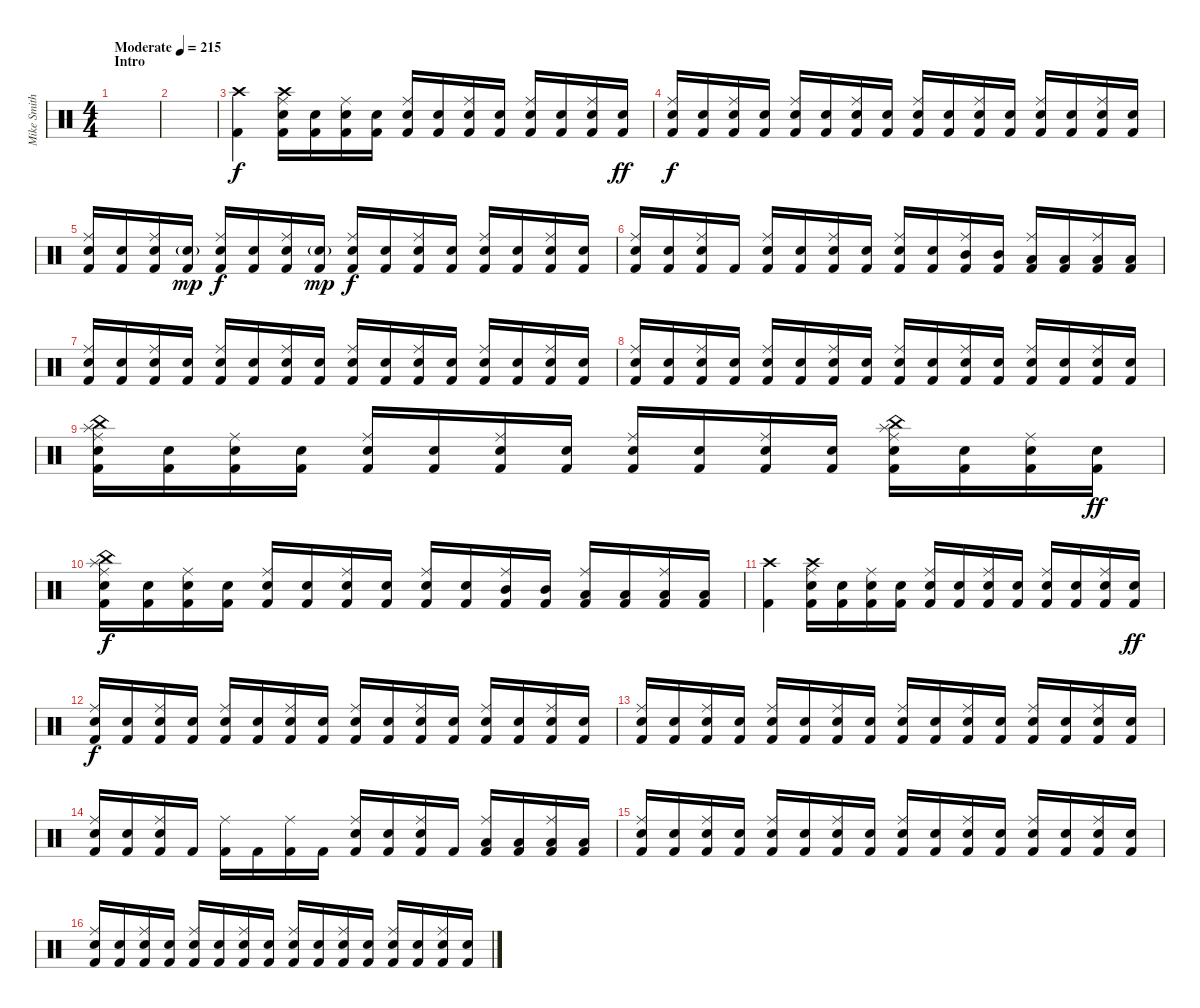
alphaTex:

\track ("Mike Smith (Suffocation)" "Mike Smith") {instrument percussion}
\staff {score}
\articulation defaults
\ts (4 4)
\section ("" "Intro")
\tempo (215 "Moderate")
\clef neutral
\ks c
|
|
("Crash high (hit)" "Kick (hit) 2").4 ("Crash high (hit)" "Ride (middle)" "Snare (hit) 2" "Kick (hit) 2").16 ("Snare (hit) 2" "Kick (hit) 2").16 ("Ride (middle)" "Snare (hit) 2" "Kick (hit) 2").16 ("Snare (hit) 2" "Kick (hit) 2").16 ("Ride (middle)" "Snare (hit) 2" "Kick (hit) 2").16 ("Snare (hit) 2" "Kick (hit) 2").16 ("Ride (middle)" "Snare (hit) 2" "Kick (hit) 2").16 ("Snare (hit) 2" "Kick (hit) 2").16 ("Ride (middle)" "Snare (hit) 2" "Kick (hit) 2").16 ("Snare (hit) 2" "Kick (hit) 2").16 ("Ride (middle)" "Snare (hit) 2" "Kick (hit) 2").16 ("Snare (hit) 2" "Kick (hit) 2").16{dy ff} |
("Ride (middle)" "Snare (hit) 2" "Kick (hit) 2").16{dy f} ("Snare (hit) 2" "Kick (hit) 2").16 ("Ride (middle)" "Snare (hit) 2" "Kick (hit) 2").16 ("Snare (hit) 2" "Kick (hit) 2").16 ("Ride (middle)" "Snare (hit) 2" "Kick (hit) 2").16 ("Snare (hit) 2" "Kick (hit) 2").16 ("Ride (middle)" "Snare (hit) 2" "Kick (hit) 2").16 ("Snare (hit) 2" "Kick (hit) 2").16 ("Ride (middle)" "Snare (hit) 2" "Kick (hit) 2").16 ("Snare (hit) 2" "Kick (hit) 2").16 ("Ride (middle)" "Snare (hit) 2" "Kick (hit) 2").16 ("Snare (hit) 2" "Kick (hit) 2").16 ("Ride (middle)" "Snare (hit) 2" "Kick (hit) 2").16 ("Snare (hit) 2" "Kick (hit) 2").16 ("Ride (middle)" "Snare (hit) 2" "Kick (hit) 2").16 ("Snare (hit) 2" "Kick (hit) 2").16 |
("Ride (middle)" "Snare (hit) 2" "Kick (hit) 2").16 ("Snare (hit) 2" "Kick (hit) 2").16 ("Ride (middle)" "Snare (hit) 2" "Kick (hit) 2").16 ("Snare (hit) 2"{g} "Kick (hit) 2").16{dy mp} ("Ride (middle)" "Snare (hit) 2" "Kick (hit) 2").16{dy f} ("Snare (hit) 2" "Kick (hit) 2").16 ("Ride (middle)" "Snare (hit) 2" "Kick (hit) 2").16 ("Snare (hit) 2"{g} "Kick (hit) 2").16{dy mp} ("Ride (middle)" "Snare (hit) 2" "Kick (hit) 2").16{dy f} ("Snare (hit) 2" "Kick (hit) 2").16 ("Ride (middle)" "Snare (hit) 2" "Kick (hit) 2").16 ("Snare (hit) 2" "Kick (hit) 2").16 ("Ride (middle)" "Snare (hit) 2" "Kick (hit) 2").16 ("Snare (hit) 2" "Kick (hit) 2").16 ("Ride (middle)" "Snare (hit) 2" "Kick (hit) 2").16 ("Snare (hit) 2" "Kick (hit) 2").16 |
("Ride (middle)" "Snare (hit) 2" "Kick (hit) 2").16 ("Snare (hit) 2" "Kick (hit) 2").16 ("Ride (middle)" "Snare (hit) 2" "Kick (hit) 2").16 "Kick (hit) 2".16 ("Ride (middle)" "Snare (hit) 2" "Kick (hit) 2").16 ("Snare (hit) 2" "Kick (hit) 2").16 ("Ride (middle)" "Snare (hit) 2" "Kick (hit) 2").16 ("Snare (hit) 2" "Kick (hit) 2").16 ("Ride (middle)" "Snare (hit) 2" "Kick (hit) 2").16 ("Snare (hit) 2" "Kick (hit) 2").16 ("Ride (middle)" "Mid Tom (hit)" "Kick (hit) 2").16 ("Mid Tom (hit)" "Kick (hit) 2").16 ("Ride (middle)" "Low Tom (hit)" "Kick (hit) 2").16 ("Low Tom (hit)" "Kick (hit) 2").16 ("Ride (middle)" "Low Tom (hit)" "Kick (hit) 2").16 ("Low Tom (hit)" "Kick (hit) 2").16 |
("Ride (middle)" "Snare (hit) 2" "Kick (hit) 2").16 ("Snare (hit) 2" "Kick (hit) 2").16 ("Ride (middle)" "Snare (hit) 2" "Kick (hit) 2").16 ("Snare (hit) 2" "Kick (hit) 2").16 ("Ride (middle)" "Snare (hit) 2" "Kick (hit) 2").16 ("Snare (hit) 2" "Kick (hit) 2").16 ("Ride (middle)" "Snare (hit) 2" "Kick (hit) 2").16 ("Snare (hit) 2" "Kick (hit) 2").16 ("Ride (middle)" "Snare (hit) 2" "Kick (hit) 2").16 ("Snare (hit) 2" "Kick (hit) 2").16 ("Ride (middle)" "Snare (hit) 2" "Kick (hit) 2").16 ("Snare (hit) 2" "Kick (hit) 2").16 ("Ride (middle)" "Snare (hit) 2" "Kick (hit) 2").16 ("Snare (hit) 2" "Kick (hit) 2").16 ("Ride (middle)" "Snare (hit) 2" "Kick (hit) 2").16 ("Snare (hit) 2" "Kick (hit) 2").16 |
("Ride (middle)" "Snare (hit) 2" "Kick (hit) 2").16 ("Snare (hit) 2" "Kick (hit) 2").16 ("Ride (middle)" "Snare (hit) 2" "Kick (hit) 2").16 ("Snare (hit) 2" "Kick (hit) 2").16 ("Ride (middle)" "Snare (hit) 2" "Kick (hit) 2").16 ("Snare (hit) 2" "Kick (hit) 2").16 ("Ride (middle)" "Snare (hit) 2" "Kick (hit) 2").16 ("Snare (hit) 2" "Kick (hit) 2").16 ("Ride (middle)" "Snare (hit) 2" "Kick (hit) 2").16 ("Snare (hit) 2" "Kick (hit) 2").16 ("Ride (middle)" "Snare (hit) 2" "Kick (hit) 2").16 ("Snare (hit) 2" "Kick (hit) 2").16 ("Ride (middle)" "Snare (hit) 2" "Kick (hit) 2").16 ("Snare (hit) 2" "Kick (hit) 2").16 ("Ride (middle)" "Snare (hit) 2" "Kick (hit) 2").16 ("Snare (hit) 2" "Kick (hit) 2").16 |
("Ride (middle)" "China (hit)" "Snare (hit) 2" "Splash (hit)" "Kick (hit) 2").16 ("Snare (hit) 2" "Kick (hit) 2").16 ("Ride (middle)" "Snare (hit) 2" "Kick (hit) 2").16 ("Snare (hit) 2" "Kick (hit) 2").16 ("Ride (middle)" "Snare (hit) 2" "Kick (hit) 2").16 ("Snare (hit) 2" "Kick (hit) 2").16 ("Ride (middle)" "Snare (hit) 2" "Kick (hit) 2").16 ("Snare (hit) 2" "Kick (hit) 2").16 ("Ride (middle)" "Snare (hit) 2" "Kick (hit) 2").16 ("Snare (hit) 2" "Kick (hit) 2").16 ("Ride (middle)" "Snare (hit) 2" "Kick (hit) 2").16 ("Snare (hit) 2" "Kick (hit) 2").16 ("Ride (middle)" "China (hit)" "Snare (hit) 2" "Splash (hit)" "Kick (hit) 2").16 ("Snare (hit) 2" "Kick (hit) 2").16 ("Ride (middle)" "Snare (hit) 2" "Kick (hit) 2").16 ("Snare (hit) 2" "Kick (hit) 2").16{dy ff} |
("Ride (middle)" "China (hit)" "Snare (hit) 2" "Splash (hit)" "Kick (hit) 2").16{dy f} ("Snare (hit) 2" "Kick (hit) 2").16 ("Ride (middle)" "Snare (hit) 2" "Kick (hit) 2").16 ("Snare (hit) 2" "Kick (hit) 2").16 ("Ride (middle)" "Snare (hit) 2" "Kick (hit) 2").16 ("Snare (hit) 2" "Kick (hit) 2").16 ("Ride (middle)" "Snare (hit) 2" "Kick (hit) 2").16 ("Snare (hit) 2" "Kick (hit) 2").16 ("Ride (middle)" "Snare (hit) 2" "Kick (hit) 2").16 ("Snare (hit) 2" "Kick (hit) 2").16 ("Ride (middle)" "Mid Tom (hit)" "Kick (hit) 2").16 ("Mid Tom (hit)" "Kick (hit) 2").16 ("Ride (middle)" "Low Tom (hit)" "Kick (hit) 2").16 ("Low Tom (hit)" "Kick (hit) 2").16 ("Ride (middle)" "Low Tom (hit)" "Kick (hit) 2").16 ("Low Tom (hit)" "Kick (hit) 2").16 |
("Crash high (hit)" "Kick (hit) 2").4 ("Crash high (hit)" "Ride (middle)" "Snare (hit) 2" "Kick (hit) 2").16 ("Snare (hit) 2" "Kick (hit) 2").16 ("Ride (middle)" "Snare (hit) 2" "Kick (hit) 2").16 ("Snare (hit) 2" "Kick (hit) 2").16 ("Ride (middle)" "Snare (hit) 2" "Kick (hit) 2").16 ("Snare (hit) 2" "Kick (hit) 2").16 ("Ride (middle)" "Snare (hit) 2" "Kick (hit) 2").16 ("Snare (hit) 2" "Kick (hit) 2").16 ("Ride (middle)" "Snare (hit) 2" "Kick (hit) 2").16 ("Snare (hit) 2" "Kick (hit) 2").16 ("Ride (middle)" "Snare (hit) 2" "Kick (hit) 2").16 ("Snare (hit) 2" "Kick (hit) 2").16{dy ff} |
("Ride (middle)" "Snare (hit) 2" "Kick (hit) 2").16{dy f} ("Snare (hit) 2" "Kick (hit) 2").16 ("Ride (middle)" "Snare (hit) 2" "Kick (hit) 2").16 ("Snare (hit) 2" "Kick (hit) 2").16 ("Ride (middle)" "Snare (hit) 2" "Kick (hit) 2").16 ("Snare (hit) 2" "Kick (hit) 2").16 ("Ride (middle)" "Snare (hit) 2" "Kick (hit) 2").16 ("Snare (hit) 2" "Kick (hit) 2").16 ("Ride (middle)" "Snare (hit) 2" "Kick (hit) 2").16 ("Snare (hit) 2" "Kick (hit) 2").16 ("Ride (middle)" "Snare (hit) 2" "Kick (hit) 2").16 ("Snare (hit) 2" "Kick (hit) 2").16 ("Ride (middle)" "Snare (hit) 2" "Kick (hit) 2").16 ("Snare (hit) 2" "Kick (hit) 2").16 ("Ride (middle)" "Snare (hit) 2" "Kick (hit) 2").16 ("Snare (hit) 2" "Kick (hit) 2").16 |
("Ride (middle)" "Snare (hit) 2" "Kick (hit) 2").16 ("Snare (hit) 2" "Kick (hit) 2").16 ("Ride (middle)" "Snare (hit) 2" "Kick (hit) 2").16 ("Snare (hit) 2" "Kick (hit) 2").16 ("Ride (middle)" "Snare (hit) 2" "Kick (hit) 2").16 ("Snare (hit) 2" "Kick (hit) 2").16 ("Ride (middle)" "Snare (hit) 2" "Kick (hit) 2").16 ("Snare (hit) 2" "Kick (hit) 2").16 ("Ride (middle)" "Snare (hit) 2" "Kick (hit) 2").16 ("Snare (hit) 2" "Kick (hit) 2").16 ("Ride (middle)" "Snare (hit) 2" "Kick (hit) 2").16 ("Snare (hit) 2" "Kick (hit) 2").16 ("Ride (middle)" "Snare (hit) 2" "Kick (hit) 2").16 ("Snare (hit) 2" "Kick (hit) 2").16 ("Ride (middle)" "Snare (hit) 2" "Kick (hit) 2").16 ("Snare (hit) 2" "Kick (hit) 2").16 |
("Ride (middle)" "Snare (hit) 2" "Kick (hit) 2").16 ("Snare (hit) 2" "Kick (hit) 2").16 ("Ride (middle)" "Snare (hit) 2" "Kick (hit) 2").16 "Kick (hit) 2".16 ("Ride (middle)" "Kick (hit) 2").16 "Kick (hit) 2".16 ("Ride (middle)" "Kick (hit) 2").16 "Kick (hit) 2".16 ("Ride (middle)" "Snare (hit) 2" "Kick (hit) 2").16 ("Snare (hit) 2" "Kick (hit) 2").16 ("Ride (middle)" "Snare (hit) 2" "Kick (hit) 2").16 "Kick (hit) 2".16 ("Ride (middle)" "Low Tom (hit)" "Kick (hit) 2").16 ("Low Tom (hit)" "Kick (hit) 2").16 ("Ride (middle)" "Low Tom (hit)" "Kick (hit) 2").16 ("Low Tom (hit)" "Kick (hit) 2").16 |
("Ride (middle)" "Snare (hit) 2" "Kick (hit) 2").16 ("Snare (hit) 2" "Kick (hit) 2").16 ("Ride (middle)" "Snare (hit) 2" "Kick (hit) 2").16 ("Snare (hit) 2" "Kick (hit) 2").16 ("Ride (middle)" "Snare (hit) 2" "Kick (hit) 2").16 ("Snare (hit) 2" "Kick (hit) 2").16 ("Ride (middle)" "Snare (hit) 2" "Kick (hit) 2").16 ("Snare (hit) 2" "Kick (hit) 2").16 ("Ride (middle)" "Snare (hit) 2" "Kick (hit) 2").16 ("Snare (hit) 2" "Kick (hit) 2").16 ("Ride (middle)" "Snare (hit) 2" "Kick (hit) 2").16 ("Snare (hit) 2" "Kick (hit) 2").16 ("Ride (middle)" "Snare (hit) 2" "Kick (hit) 2").16 ("Snare (hit) 2" "Kick (hit) 2").16 ("Ride (middle)" "Snare (hit) 2" "Kick (hit) 2").16 ("Snare (hit) 2" "Kick (hit) 2").16 |
("Ride (middle)" "Snare (hit) 2" "Kick (hit) 2").16 ("Snare (hit) 2" "Kick (hit) 2").16 ("Ride (middle)" "Snare (hit) 2" "Kick (hit) 2").16 ("Snare (hit) 2" "Kick (hit) 2").16 ("Ride (middle)" "Snare (hit) 2" "Kick (hit) 2").16 ("Snare (hit) 2" "Kick (hit) 2").16 ("Ride (middle)" "Snare (hit) 2" "Kick (hit) 2").16 ("Snare (hit) 2" "Kick (hit) 2").16 ("Ride (middle)" "Snare (hit) 2" "Kick (hit) 2").16 ("Snare (hit) 2" "Kick (hit) 2").16 ("Ride (middle)" "Snare (hit) 2" "Kick (hit) 2").16 ("Snare (hit) 2" "Kick (hit) 2").16 ("Ride (middle)" "Snare (hit) 2" "Kick (hit) 2").16 ("Snare (hit) 2" "Kick (hit) 2").16 ("Ride (middle)" "Snare (hit) 2" "Kick (hit) 2").16 ("Snare (hit) 2" "Kick (hit) 2").16
